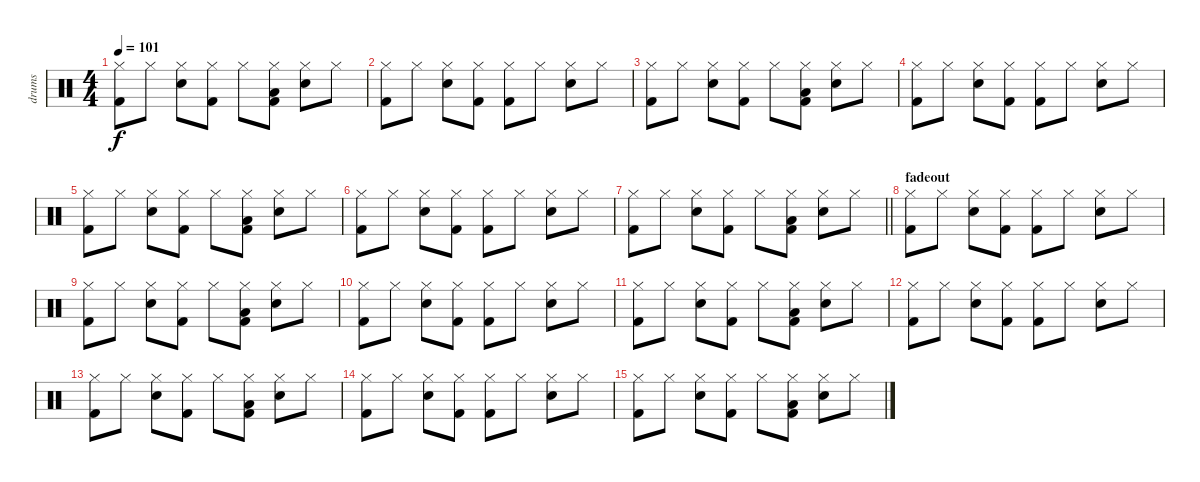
\track ("drums" "drums") {instrument percussion}
\staff {score}
\articulation defaults
\ts (4 4)
\tempo 101
\clef neutral
\ks c
("Hi-Hat (closed)" "Kick (hit) 2").8{dy f} "Hi-Hat (closed)".8 ("Hi-Hat (closed)" "Snare (hit) 2").8 ("Hi-Hat (closed)" "Kick (hit) 2").8 "Hi-Hat (closed)".8 ("Hi-Hat (closed)" "Low Floor Tom (hit)" "Kick (hit) 2").8 ("Hi-Hat (closed)" "Snare (hit) 2").8 "Hi-Hat (closed)".8 |
("Hi-Hat (closed)" "Kick (hit) 2").8 "Hi-Hat (closed)".8 ("Hi-Hat (closed)" "Snare (hit) 2").8 ("Hi-Hat (closed)" "Kick (hit) 2").8 ("Hi-Hat (closed)" "Kick (hit) 2").8 "Hi-Hat (closed)".8 ("Hi-Hat (closed)" "Snare (hit) 2").8 "Hi-Hat (closed)".8 |
("Hi-Hat (closed)" "Kick (hit) 2").8 "Hi-Hat (closed)".8 ("Hi-Hat (closed)" "Snare (hit) 2").8 ("Hi-Hat (closed)" "Kick (hit) 2").8 "Hi-Hat (closed)".8 ("Hi-Hat (closed)" "Low Floor Tom (hit)" "Kick (hit) 2").8 ("Hi-Hat (closed)" "Snare (hit) 2").8 "Hi-Hat (closed)".8 |
("Hi-Hat (closed)" "Kick (hit) 2").8 "Hi-Hat (closed)".8 ("Hi-Hat (closed)" "Snare (hit) 2").8 ("Hi-Hat (closed)" "Kick (hit) 2").8 ("Hi-Hat (closed)" "Kick (hit) 2").8 "Hi-Hat (closed)".8 ("Hi-Hat (closed)" "Snare (hit) 2").8 "Hi-Hat (closed)".8 |
("Hi-Hat (closed)" "Kick (hit) 2").8 "Hi-Hat (closed)".8 ("Hi-Hat (closed)" "Snare (hit) 2").8 ("Hi-Hat (closed)" "Kick (hit) 2").8 "Hi-Hat (closed)".8 ("Hi-Hat (closed)" "Low Floor Tom (hit)" "Kick (hit) 2").8 ("Hi-Hat (closed)" "Snare (hit) 2").8 "Hi-Hat (closed)".8 |
("Hi-Hat (closed)" "Kick (hit) 2").8 "Hi-Hat (closed)".8 ("Hi-Hat (closed)" "Snare (hit) 2").8 ("Hi-Hat (closed)" "Kick (hit) 2").8 ("Hi-Hat (closed)" "Kick (hit) 2").8 "Hi-Hat (closed)".8 ("Hi-Hat (closed)" "Snare (hit) 2").8 "Hi-Hat (closed)".8 |
\barLineRight lightlight
("Hi-Hat (closed)" "Kick (hit) 2").8 "Hi-Hat (closed)".8 ("Hi-Hat (closed)" "Snare (hit) 2").8 ("Hi-Hat (closed)" "Kick (hit) 2").8 "Hi-Hat (closed)".8 ("Hi-Hat (closed)" "Low Floor Tom (hit)" "Kick (hit) 2").8 ("Hi-Hat (closed)" "Snare (hit) 2").8 "Hi-Hat (closed)".8 |
\section ("" "fadeout")
("Hi-Hat (closed)" "Kick (hit) 2").8 "Hi-Hat (closed)".8 ("Hi-Hat (closed)" "Snare (hit) 2").8 ("Hi-Hat (closed)" "Kick (hit) 2").8 ("Hi-Hat (closed)" "Kick (hit) 2").8 "Hi-Hat (closed)".8 ("Hi-Hat (closed)" "Snare (hit) 2").8 "Hi-Hat (closed)".8 |
("Hi-Hat (closed)" "Kick (hit) 2").8 "Hi-Hat (closed)".8 ("Hi-Hat (closed)" "Snare (hit) 2").8 ("Hi-Hat (closed)" "Kick (hit) 2").8 "Hi-Hat (closed)".8 ("Hi-Hat (closed)" "Low Floor Tom (hit)" "Kick (hit) 2").8 ("Hi-Hat (closed)" "Snare (hit) 2").8 "Hi-Hat (closed)".8 |
("Hi-Hat (closed)" "Kick (hit) 2").8 "Hi-Hat (closed)".8 ("Hi-Hat (closed)" "Snare (hit) 2").8 ("Hi-Hat (closed)" "Kick (hit) 2").8 ("Hi-Hat (closed)" "Kick (hit) 2").8 "Hi-Hat (closed)".8 ("Hi-Hat (closed)" "Snare (hit) 2").8 "Hi-Hat (closed)".8 |
("Hi-Hat (closed)" "Kick (hit) 2").8 "Hi-Hat (closed)".8 ("Hi-Hat (closed)" "Snare (hit) 2").8 ("Hi-Hat (closed)" "Kick (hit) 2").8 "Hi-Hat (closed)".8 ("Hi-Hat (closed)" "Low Floor Tom (hit)" "Kick (hit) 2").8 ("Hi-Hat (closed)" "Snare (hit) 2").8 "Hi-Hat (closed)".8 |
("Hi-Hat (closed)" "Kick (hit) 2").8 "Hi-Hat (closed)".8 ("Hi-Hat (closed)" "Snare (hit) 2").8 ("Hi-Hat (closed)" "Kick (hit) 2").8 ("Hi-Hat (closed)" "Kick (hit) 2").8 "Hi-Hat (closed)".8 ("Hi-Hat (closed)" "Snare (hit) 2").8 "Hi-Hat (closed)".8 |
("Hi-Hat (closed)" "Kick (hit) 2").8 "Hi-Hat (closed)".8 ("Hi-Hat (closed)" "Snare (hit) 2").8 ("Hi-Hat (closed)" "Kick (hit) 2").8 "Hi-Hat (closed)".8 ("Hi-Hat (closed)" "Low Floor Tom (hit)" "Kick (hit) 2").8 ("Hi-Hat (closed)" "Snare (hit) 2").8 "Hi-Hat (closed)".8 |
("Hi-Hat (closed)" "Kick (hit) 2").8 "Hi-Hat (closed)".8 ("Hi-Hat (closed)" "Snare (hit) 2").8 ("Hi-Hat (closed)" "Kick (hit) 2").8 ("Hi-Hat (closed)" "Kick (hit) 2").8 "Hi-Hat (closed)".8 ("Hi-Hat (closed)" "Snare (hit) 2").8 "Hi-Hat (closed)".8 |
("Hi-Hat (closed)" "Kick (hit) 2").8 "Hi-Hat (closed)".8 ("Hi-Hat (closed)" "Snare (hit) 2").8 ("Hi-Hat (closed)" "Kick (hit) 2").8 "Hi-Hat (closed)".8 ("Hi-Hat (closed)" "Low Floor Tom (hit)" "Kick (hit) 2").8 ("Hi-Hat (closed)" "Snare (hit) 2").8 "Hi-Hat (closed)".8
